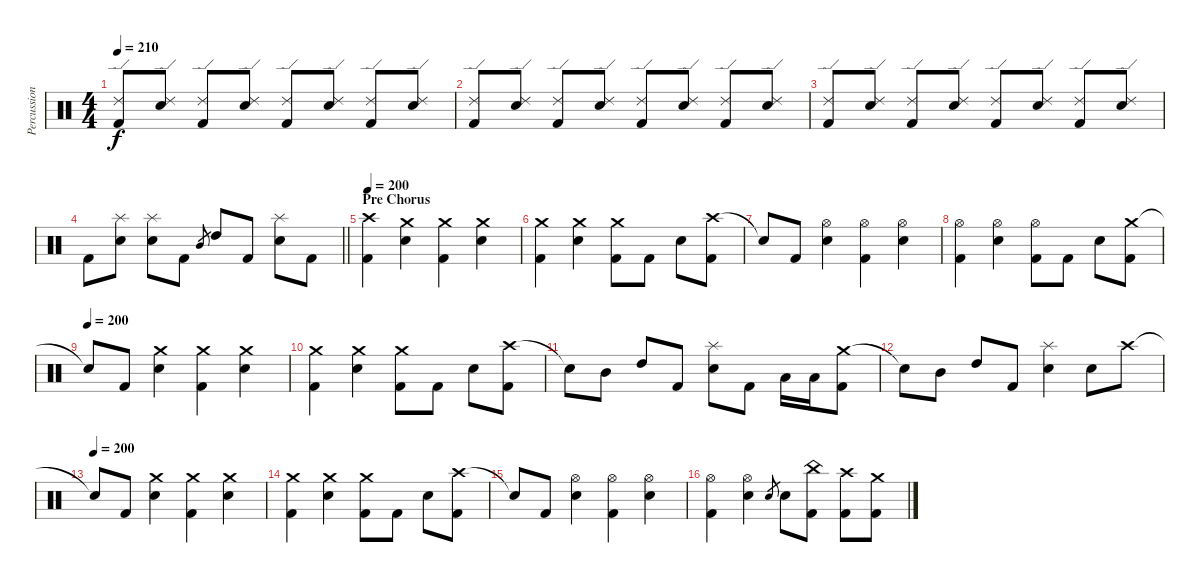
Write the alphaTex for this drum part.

\track ("Percussion" "Percussion") {instrument percussion}
\staff {score}
\articulation defaults
\ts (4 4)
\tempo 210
\clef neutral
\ks c
("Ride (edge) 2" "Kick (hit) 2").8{dy f} ("Ride (edge) 2" "Electric Snare (hit)").8 ("Ride (edge) 2" "Kick (hit) 2").8 ("Ride (edge) 2" "Electric Snare (hit)").8 ("Ride (edge) 2" "Kick (hit) 2").8 ("Ride (edge) 2" "Electric Snare (hit)").8 ("Ride (edge) 2" "Kick (hit) 2").8 ("Ride (edge) 2" "Electric Snare (hit)").8 |
("Ride (edge) 2" "Kick (hit) 2").8 ("Ride (edge) 2" "Electric Snare (hit)").8 ("Ride (edge) 2" "Kick (hit) 2").8 ("Ride (edge) 2" "Electric Snare (hit)").8 ("Ride (edge) 2" "Kick (hit) 2").8 ("Ride (edge) 2" "Electric Snare (hit)").8 ("Ride (edge) 2" "Kick (hit) 2").8 ("Ride (edge) 2" "Electric Snare (hit)").8 |
("Ride (edge) 2" "Kick (hit) 2").8 ("Ride (edge) 2" "Electric Snare (hit)").8 ("Ride (edge) 2" "Kick (hit) 2").8 ("Ride (edge) 2" "Electric Snare (hit)").8 ("Ride (edge) 2" "Kick (hit) 2").8 ("Ride (edge) 2" "Electric Snare (hit)").8 ("Ride (edge) 2" "Kick (hit) 2").8 ("Ride (edge) 2" "Electric Snare (hit)").8 |
\barLineRight lightlight "Kick (hit) 2".8
("Splash (hit)" "Electric Snare (hit)").8 ("Splash (hit)" "Electric Snare (hit)").8 "Kick (hit) 2".8 "Mid Tom (hit)".8{gr} "High Tom (hit)".8 "Kick (hit) 2".8 ("Splash (hit)" "Electric Snare (hit)").8 "Kick (hit) 2".8 |
\section ("" "Pre Chorus")
\tempo 200
("Crash high (hit)" "Kick (hit) 2").4 ("Crash medium (hit)" "Electric Snare (hit)").4 ("Crash medium (hit)" "Kick (hit) 2").4 ("Crash medium (hit)" "Electric Snare (hit)").4 |
("Crash medium (hit)" "Kick (hit) 2").4 ("Crash medium (hit)" "Electric Snare (hit)").4 ("Crash medium (hit)" "Kick (hit) 2").8 "Kick (hit) 2".8 "Electric Snare (hit)".8 ("Crash high (hit)" "Kick (hit) 2").8 |
"Snare (hit)"{t}.8 "Kick (hit) 2".8 ("Hi-Hat (open)" "Electric Snare (hit)").4 ("Hi-Hat (open)" "Kick (hit) 2").4 ("Hi-Hat (open)" "Electric Snare (hit)").4 |
("Hi-Hat (open)" "Kick (hit) 2").4 ("Hi-Hat (open)" "Electric Snare (hit)").4 ("Hi-Hat (open)" "Kick (hit) 2").8 "Kick (hit) 2".8 "Electric Snare (hit)".8 ("Crash medium (hit)" "Kick (hit) 2").8 |
\tempo (200)
"Snare (hit)"{t}.8 "Kick (hit) 2".8 ("Crash medium (hit)" "Electric Snare (hit)").4 ("Crash medium (hit)" "Kick (hit) 2").4 ("Crash medium (hit)" "Electric Snare (hit)").4 |
("Crash medium (hit)" "Kick (hit) 2").4 ("Crash medium (hit)" "Electric Snare (hit)").4 ("Crash medium (hit)" "Kick (hit) 2").8 "Kick (hit) 2".8 "Electric Snare (hit)".8 ("Crash high (hit)" "Kick (hit) 2").8 |
"Snare (hit)"{t}.8 "Mid Tom (hit)".8 "High Tom (hit)".8 "Kick (hit) 2".8 ("Splash (hit)" "Electric Snare (hit)").8 "Kick (hit) 2".8 "Low Tom (hit)".16 "Low Tom (hit)".16 ("Crash medium (hit)" "Kick (hit) 2").8 |
"Snare (hit)"{t}.8 "Mid Tom (hit)".8 "High Tom (hit)".8 "Kick (hit) 2".8 ("Splash (hit)" "Electric Snare (hit)").4 "Electric Snare (hit)".8 "Crash high (hit)".8 |
\tempo (200)
"Snare (hit)"{t}.8 "Kick (hit) 2".8 ("Crash medium (hit)" "Electric Snare (hit)").4 ("Crash medium (hit)" "Kick (hit) 2").4 ("Crash medium (hit)" "Electric Snare (hit)").4 |
("Crash medium (hit)" "Kick (hit) 2").4 ("Crash medium (hit)" "Electric Snare (hit)").4 ("Crash medium (hit)" "Kick (hit) 2").8 "Kick (hit) 2".8 "Electric Snare (hit)".8 ("Crash high (hit)" "Kick (hit) 2").8 |
"Snare (hit)"{t}.8 "Kick (hit) 2".8 ("Hi-Hat (open)" "Electric Snare (hit)").4 ("Hi-Hat (open)" "Kick (hit) 2").4 ("Hi-Hat (open)" "Electric Snare (hit)").4 |
("Hi-Hat (open)" "Kick (hit) 2").4 ("Hi-Hat (open)" "Electric Snare (hit)").4 "Electric Snare (hit)".8{gr} "Electric Snare (hit)".8 ("China (hit)" "Kick (hit) 2").8 ("Crash high (hit)" "Kick (hit) 2").8 ("Crash medium (hit)" "Kick (hit) 2").8
